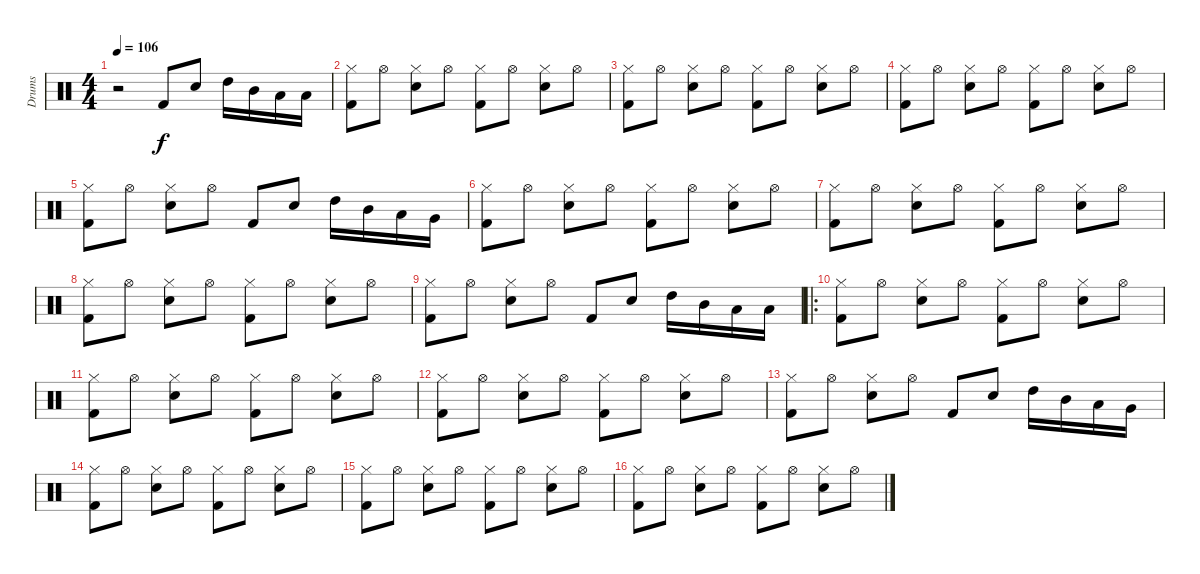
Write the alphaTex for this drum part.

\track ("Drums" "Drums") {instrument percussion}
\staff {score}
\articulation defaults
\ts (4 4)
\tempo 106
\clef neutral
\ks c
r.2{dy f} "Kick (hit) 2".8 "Electric Snare (hit)".8 "High Tom (hit)".16 "Mid Tom (hit)".16 "Low Tom (hit)".16 "Low Tom (hit)".16 |
("Hi-Hat (closed)" "Kick (hit) 2").8 "Hi-Hat (open)".8 ("Hi-Hat (closed)" "Electric Snare (hit)").8 "Hi-Hat (open)".8 ("Hi-Hat (closed)" "Kick (hit) 2").8 "Hi-Hat (open)".8 ("Hi-Hat (closed)" "Electric Snare (hit)").8 "Hi-Hat (open)".8 |
("Hi-Hat (closed)" "Kick (hit) 2").8 "Hi-Hat (open)".8 ("Hi-Hat (closed)" "Electric Snare (hit)").8 "Hi-Hat (open)".8 ("Hi-Hat (closed)" "Kick (hit) 2").8 "Hi-Hat (open)".8 ("Hi-Hat (closed)" "Electric Snare (hit)").8 "Hi-Hat (open)".8 |
("Hi-Hat (closed)" "Kick (hit) 2").8 "Hi-Hat (open)".8 ("Hi-Hat (closed)" "Electric Snare (hit)").8 "Hi-Hat (open)".8 ("Hi-Hat (closed)" "Kick (hit) 2").8 "Hi-Hat (open)".8 ("Hi-Hat (closed)" "Electric Snare (hit)").8 "Hi-Hat (open)".8 |
("Hi-Hat (closed)" "Kick (hit) 2").8 "Hi-Hat (open)".8 ("Hi-Hat (closed)" "Electric Snare (hit)").8 "Hi-Hat (open)".8 "Kick (hit) 2".8 "Electric Snare (hit)".8 "High Tom (hit)".16 "Mid Tom (hit)".16 "Low Tom (hit)".16 "Very Low Tom (hit)".16 |
("Hi-Hat (closed)" "Kick (hit) 2").8 "Hi-Hat (open)".8 ("Hi-Hat (closed)" "Electric Snare (hit)").8 "Hi-Hat (open)".8 ("Hi-Hat (closed)" "Kick (hit) 2").8 "Hi-Hat (open)".8 ("Hi-Hat (closed)" "Electric Snare (hit)").8 "Hi-Hat (open)".8 |
("Hi-Hat (closed)" "Kick (hit) 2").8 "Hi-Hat (open)".8 ("Hi-Hat (closed)" "Electric Snare (hit)").8 "Hi-Hat (open)".8 ("Hi-Hat (closed)" "Kick (hit) 2").8 "Hi-Hat (open)".8 ("Hi-Hat (closed)" "Electric Snare (hit)").8 "Hi-Hat (open)".8 |
("Hi-Hat (closed)" "Kick (hit) 2").8 "Hi-Hat (open)".8 ("Hi-Hat (closed)" "Electric Snare (hit)").8 "Hi-Hat (open)".8 ("Hi-Hat (closed)" "Kick (hit) 2").8 "Hi-Hat (open)".8 ("Hi-Hat (closed)" "Electric Snare (hit)").8 "Hi-Hat (open)".8 |
("Hi-Hat (closed)" "Kick (hit) 2").8 "Hi-Hat (open)".8 ("Hi-Hat (closed)" "Electric Snare (hit)").8 "Hi-Hat (open)".8 "Kick (hit) 2".8 "Electric Snare (hit)".8 "High Tom (hit)".16 "Mid Tom (hit)".16 "Low Tom (hit)".16 "Low Tom (hit)".16 |
\ro
("Hi-Hat (closed)" "Kick (hit) 2").8 "Hi-Hat (open)".8 ("Hi-Hat (closed)" "Electric Snare (hit)").8 "Hi-Hat (open)".8 ("Hi-Hat (closed)" "Kick (hit) 2").8 "Hi-Hat (open)".8 ("Hi-Hat (closed)" "Electric Snare (hit)").8 "Hi-Hat (open)".8 |
("Hi-Hat (closed)" "Kick (hit) 2").8 "Hi-Hat (open)".8 ("Hi-Hat (closed)" "Electric Snare (hit)").8 "Hi-Hat (open)".8 ("Hi-Hat (closed)" "Kick (hit) 2").8 "Hi-Hat (open)".8 ("Hi-Hat (closed)" "Electric Snare (hit)").8 "Hi-Hat (open)".8 |
("Hi-Hat (closed)" "Kick (hit) 2").8 "Hi-Hat (open)".8 ("Hi-Hat (closed)" "Electric Snare (hit)").8 "Hi-Hat (open)".8 ("Hi-Hat (closed)" "Kick (hit) 2").8 "Hi-Hat (open)".8 ("Hi-Hat (closed)" "Electric Snare (hit)").8 "Hi-Hat (open)".8 |
("Hi-Hat (closed)" "Kick (hit) 2").8 "Hi-Hat (open)".8 ("Hi-Hat (closed)" "Electric Snare (hit)").8 "Hi-Hat (open)".8 "Kick (hit) 2".8 "Electric Snare (hit)".8 "High Tom (hit)".16 "Mid Tom (hit)".16 "Low Tom (hit)".16 "Very Low Tom (hit)".16 |
("Hi-Hat (closed)" "Kick (hit) 2").8 "Hi-Hat (open)".8 ("Hi-Hat (closed)" "Electric Snare (hit)").8 "Hi-Hat (open)".8 ("Hi-Hat (closed)" "Kick (hit) 2").8 "Hi-Hat (open)".8 ("Hi-Hat (closed)" "Electric Snare (hit)").8 "Hi-Hat (open)".8 |
("Hi-Hat (closed)" "Kick (hit) 2").8 "Hi-Hat (open)".8 ("Hi-Hat (closed)" "Electric Snare (hit)").8 "Hi-Hat (open)".8 ("Hi-Hat (closed)" "Kick (hit) 2").8 "Hi-Hat (open)".8 ("Hi-Hat (closed)" "Electric Snare (hit)").8 "Hi-Hat (open)".8 |
("Hi-Hat (closed)" "Kick (hit) 2").8 "Hi-Hat (open)".8 ("Hi-Hat (closed)" "Electric Snare (hit)").8 "Hi-Hat (open)".8 ("Hi-Hat (closed)" "Kick (hit) 2").8 "Hi-Hat (open)".8 ("Hi-Hat (closed)" "Electric Snare (hit)").8 "Hi-Hat (open)".8
